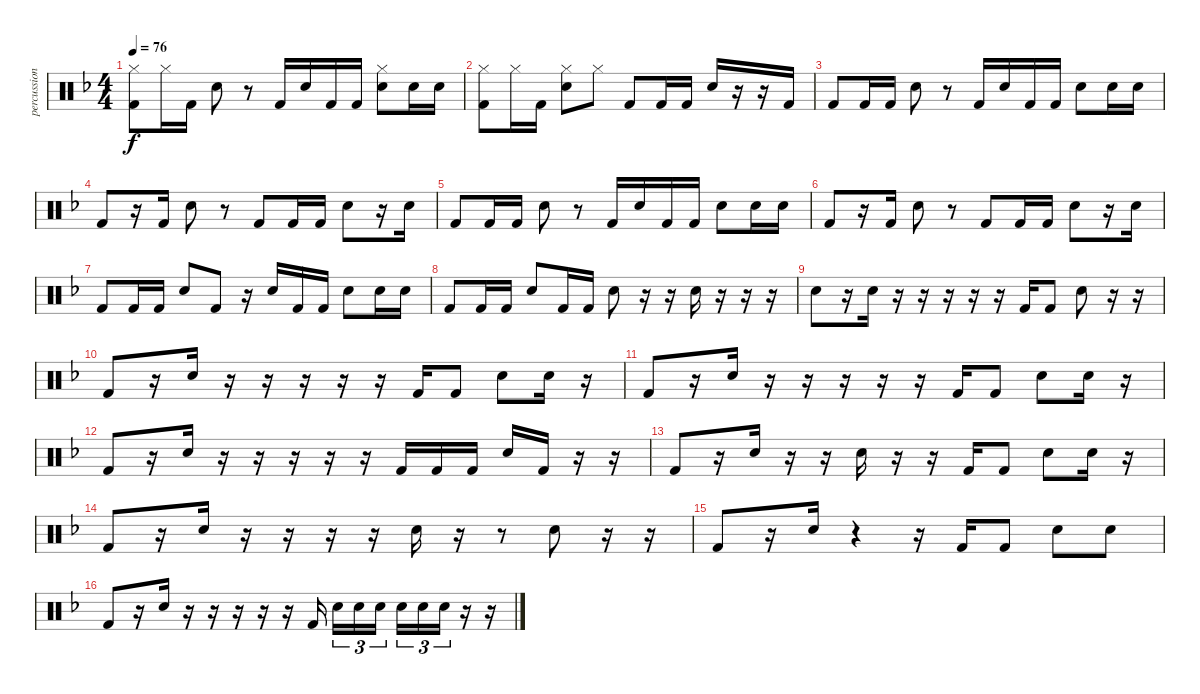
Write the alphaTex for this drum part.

\track ("percussion" "percussion") {instrument percussion}
\staff {score}
\articulation defaults
\ts (4 4)
\tempo 76
\clef neutral
\ks f
("Hi-Hat (closed)" "Kick (hit) 2").8{dy f} "Hi-Hat (closed)".16 "Kick (hit) 2".16 "Electric Snare (hit)".8 r.8 "Kick (hit) 2".16 "Electric Snare (hit)".16 "Kick (hit) 2".16 "Kick (hit) 2".16 ("Electric Snare (hit)" "Hi-Hat (closed)").8 "Electric Snare (hit)".16 "Electric Snare (hit)".16 |
("Hi-Hat (closed)" "Kick (hit) 2").8 "Hi-Hat (closed)".16 "Kick (hit) 2".16 ("Electric Snare (hit)" "Hi-Hat (closed)").8 "Hi-Hat (closed)".8 "Kick (hit) 2".8 "Kick (hit) 2".16 "Kick (hit) 2".16 "Electric Snare (hit)".16 r.16 r.16 "Kick (hit) 2".16 |
"Kick (hit) 2".8 "Kick (hit) 2".16 "Kick (hit) 2".16 "Electric Snare (hit)".8 r.8 "Kick (hit) 2".16 "Electric Snare (hit)".16 "Kick (hit) 2".16 "Kick (hit) 2".16 "Electric Snare (hit)".8 "Electric Snare (hit)".16 "Electric Snare (hit)".16 |
"Kick (hit) 2".8 r.16 "Kick (hit) 2".16 "Electric Snare (hit)".8 r.8 "Kick (hit) 2".8 "Kick (hit) 2".16 "Kick (hit) 2".16 "Electric Snare (hit)".8 r.16 "Electric Snare (hit)".16 |
"Kick (hit) 2".8 "Kick (hit) 2".16 "Kick (hit) 2".16 "Electric Snare (hit)".8 r.8 "Kick (hit) 2".16 "Electric Snare (hit)".16 "Kick (hit) 2".16 "Kick (hit) 2".16 "Electric Snare (hit)".8 "Electric Snare (hit)".16 "Electric Snare (hit)".16 |
"Kick (hit) 2".8 r.16 "Kick (hit) 2".16 "Electric Snare (hit)".8 r.8 "Kick (hit) 2".8 "Kick (hit) 2".16 "Kick (hit) 2".16 "Electric Snare (hit)".8 r.16 "Electric Snare (hit)".16 |
"Kick (hit) 2".8 "Kick (hit) 2".16 "Kick (hit) 2".16 "Electric Snare (hit)".8 "Kick (hit) 2".8 r.16 "Electric Snare (hit)".16 "Kick (hit) 2".16 "Kick (hit) 2".16 "Electric Snare (hit)".8 "Electric Snare (hit)".16 "Electric Snare (hit)".16 |
"Kick (hit) 2".8 "Kick (hit) 2".16 "Kick (hit) 2".16 "Electric Snare (hit)".8 "Kick (hit) 2".16 "Kick (hit) 2".16 "Electric Snare (hit)".8 r.16 r.16 "Electric Snare (hit)".16 r.16 r.16 r.16 |
"Electric Snare (hit)".8 r.16 "Electric Snare (hit)".16 r.16 r.16 r.16 r.16 r.16 "Kick (hit) 2".16 "Kick (hit) 2".8 "Electric Snare (hit)".8 r.16 r.16 |
"Kick (hit) 2".8 r.16 "Electric Snare (hit)".16 r.16 r.16 r.16 r.16 r.16 "Kick (hit) 2".16 "Kick (hit) 2".8 "Electric Snare (hit)".8 "Electric Snare (hit)".16 r.16 |
"Kick (hit) 2".8 r.16 "Electric Snare (hit)".16 r.16 r.16 r.16 r.16 r.16 "Kick (hit) 2".16 "Kick (hit) 2".8 "Electric Snare (hit)".8 "Electric Snare (hit)".16 r.16 |
"Kick (hit) 2".8 r.16 "Electric Snare (hit)".16 r.16 r.16 r.16 r.16 r.16 "Kick (hit) 2".16 "Kick (hit) 2".16 "Kick (hit) 2".16 "Electric Snare (hit)".16 "Kick (hit) 2".16 r.16 r.16 |
"Kick (hit) 2".8 r.16 "Electric Snare (hit)".16 r.16 r.16 "Electric Snare (hit)".16 r.16 r.16 "Kick (hit) 2".16 "Kick (hit) 2".8 "Electric Snare (hit)".8 "Electric Snare (hit)".16 r.16 |
"Kick (hit) 2".8 r.16 "Electric Snare (hit)".16 r.16 r.16 r.16 r.16 "Electric Snare (hit)".16 r.16 r.8 "Electric Snare (hit)".8 r.16 r.16 |
"Kick (hit) 2".8 r.16 "Electric Snare (hit)".16 r.4 r.16 "Kick (hit) 2".16 "Kick (hit) 2".8 "Electric Snare (hit)".8 "Electric Snare (hit)".8 |
"Kick (hit) 2".8 r.16 "Electric Snare (hit)".16 r.16 r.16 r.16 r.16 r.16 "Kick (hit) 2".16{beam splitsecondary} "Electric Snare (hit)".16{tu (3 2)} "Electric Snare (hit)".16{tu (3 2)} "Electric Snare (hit)".16{tu (3 2)} "Electric Snare (hit)".16{tu (3 2)} "Electric Snare (hit)".16{tu (3 2)} "Electric Snare (hit)".16{tu (3 2)} r.16 r.16
